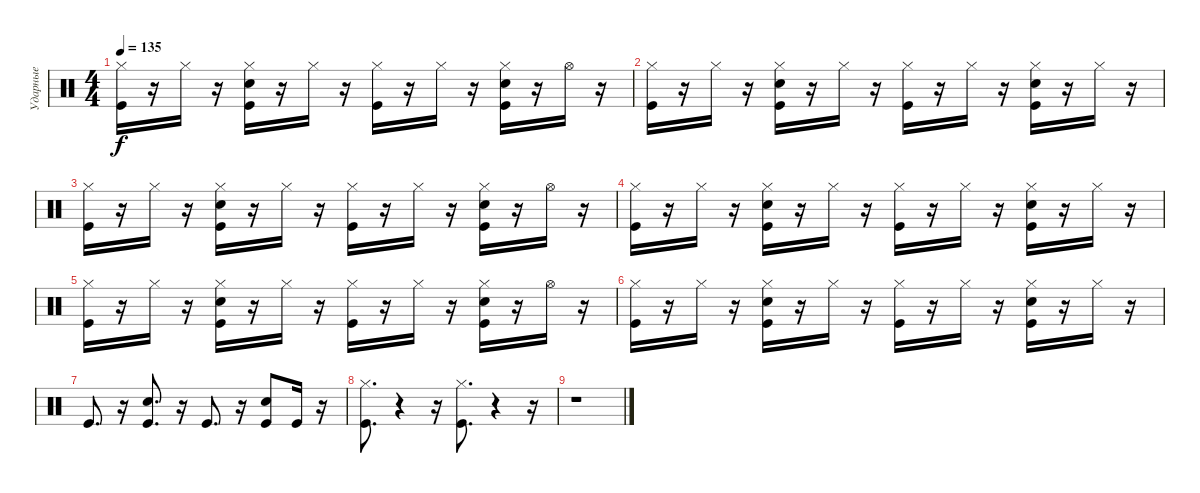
\track ("Ударные" "Ударные") {instrument percussion}
\staff {score}
\articulation defaults
\ts (4 4)
\tempo 135
\clef neutral
\ks c
("Hi-Hat (closed)" "Kick (hit)").16{dy f} r.16 "Hi-Hat (closed)".16 r.16 ("Hi-Hat (closed)" "Kick (hit)" "Snare (hit) 2").16 r.16 "Hi-Hat (closed)".16 r.16 ("Hi-Hat (closed)" "Kick (hit)").16 r.16 "Hi-Hat (closed)".16 r.16 ("Hi-Hat (closed)" "Snare (hit) 2" "Kick (hit)").16 r.16 "Hi-Hat (open)".16 r.16 |
("Hi-Hat (closed)" "Kick (hit)").16 r.16 "Hi-Hat (closed)".16 r.16 ("Hi-Hat (closed)" "Kick (hit)" "Snare (hit) 2").16 r.16 "Hi-Hat (closed)".16 r.16 ("Hi-Hat (closed)" "Kick (hit)").16 r.16 "Hi-Hat (closed)".16 r.16 ("Hi-Hat (closed)" "Snare (hit) 2" "Kick (hit)").16 r.16 "Hi-Hat (closed)".16 r.16 |
("Hi-Hat (closed)" "Kick (hit)").16 r.16 "Hi-Hat (closed)".16 r.16 ("Hi-Hat (closed)" "Kick (hit)" "Snare (hit) 2").16 r.16 "Hi-Hat (closed)".16 r.16 ("Hi-Hat (closed)" "Kick (hit)").16 r.16 "Hi-Hat (closed)".16 r.16 ("Hi-Hat (closed)" "Snare (hit) 2" "Kick (hit)").16 r.16 "Hi-Hat (open)".16 r.16 |
("Hi-Hat (closed)" "Kick (hit)").16 r.16 "Hi-Hat (closed)".16 r.16 ("Hi-Hat (closed)" "Kick (hit)" "Snare (hit) 2").16 r.16 "Hi-Hat (closed)".16 r.16 ("Hi-Hat (closed)" "Kick (hit)").16 r.16 "Hi-Hat (closed)".16 r.16 ("Hi-Hat (closed)" "Snare (hit) 2" "Kick (hit)").16 r.16 "Hi-Hat (closed)".16 r.16 |
("Hi-Hat (closed)" "Kick (hit)").16 r.16 "Hi-Hat (closed)".16 r.16 ("Hi-Hat (closed)" "Kick (hit)" "Snare (hit) 2").16 r.16 "Hi-Hat (closed)".16 r.16 ("Hi-Hat (closed)" "Kick (hit)").16 r.16 "Hi-Hat (closed)".16 r.16 ("Hi-Hat (closed)" "Snare (hit) 2" "Kick (hit)").16 r.16 "Hi-Hat (open)".16 r.16 |
("Hi-Hat (closed)" "Kick (hit)").16 r.16 "Hi-Hat (closed)".16 r.16 ("Hi-Hat (closed)" "Kick (hit)" "Snare (hit) 2").16 r.16 "Hi-Hat (closed)".16 r.16 ("Hi-Hat (closed)" "Kick (hit)").16 r.16 "Hi-Hat (closed)".16 r.16 ("Hi-Hat (closed)" "Snare (hit) 2" "Kick (hit)").16 r.16 "Hi-Hat (closed)".16 r.16 |
"Kick (hit)".8{d} r.16 ("Kick (hit)" "Snare (hit) 2").8{d} r.16 "Kick (hit)".8{d} r.16 ("Snare (hit) 2" "Kick (hit)").8 "Kick (hit)".16 r.16 |
("Hi-Hat (closed)" "Kick (hit)").8{d} r.4 r.16 ("Hi-Hat (closed)" "Kick (hit)").8{d} r.4 r.16 |
r.1
